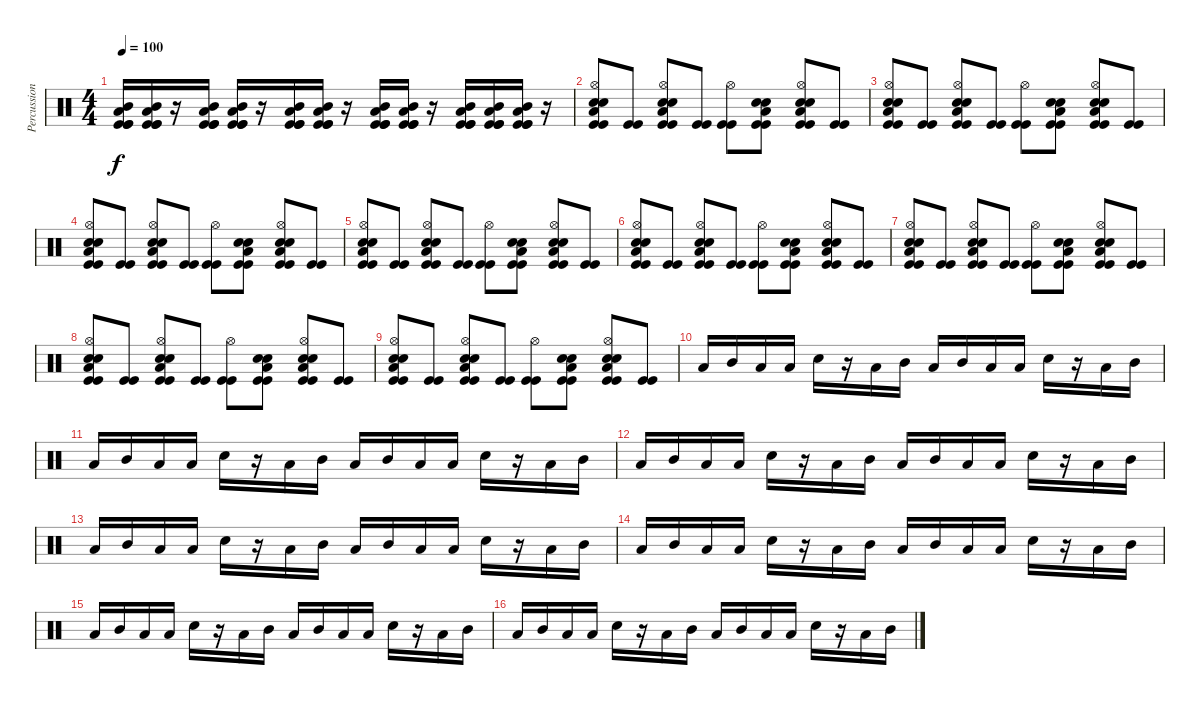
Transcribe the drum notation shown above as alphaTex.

\track ("Percussion" "Percussion") {instrument percussion}
\staff {score}
\articulation defaults
\ts (4 4)
\tempo 100
\clef neutral
\ks c
("Kick (hit)" "Kick (hit)" "Kick (hit)" "Low Tom (hit)" "Mid Tom (hit)").16{dy f} ("Kick (hit)" "Kick (hit)" "Kick (hit)" "Low Tom (hit)" "Mid Tom (hit)").16 r.16 ("Kick (hit)" "Kick (hit)" "Kick (hit)" "Low Tom (hit)" "Mid Tom (hit)").16 ("Kick (hit)" "Kick (hit)" "Kick (hit)" "Low Tom (hit)" "Mid Tom (hit)").16 r.16 ("Kick (hit)" "Kick (hit)" "Kick (hit)" "Low Tom (hit)" "Mid Tom (hit)").16 ("Kick (hit)" "Kick (hit)" "Kick (hit)" "Low Tom (hit)" "Mid Tom (hit)").16 r.16 ("Kick (hit)" "Kick (hit)" "Kick (hit)" "Low Tom (hit)" "Mid Tom (hit)").16 ("Kick (hit)" "Kick (hit)" "Kick (hit)" "Low Tom (hit)" "Mid Tom (hit)").16 r.16 ("Kick (hit)" "Kick (hit)" "Kick (hit)" "Low Tom (hit)" "Mid Tom (hit)").16 ("Kick (hit)" "Kick (hit)" "Kick (hit)" "Low Tom (hit)" "Mid Tom (hit)").16 ("Kick (hit)" "Kick (hit)" "Kick (hit)" "Low Tom (hit)" "Mid Tom (hit)").16 r.16 |
("Hi-Hat (open)" "Kick (hit)" "Kick (hit)" "Electric Snare (hit)" "Electric Snare (hit)" "Low Tom (hit)").8 ("Kick (hit)" "Kick (hit)").8 ("Hi-Hat (open)" "Kick (hit)" "Kick (hit)" "Electric Snare (hit)" "Electric Snare (hit)" "Low Tom (hit)").8 ("Kick (hit)" "Kick (hit)").8 ("Hi-Hat (open)" "Kick (hit)" "Kick (hit)").8 ("Kick (hit)" "Kick (hit)" "Electric Snare (hit)" "Electric Snare (hit)" "Low Tom (hit)").8 ("Hi-Hat (open)" "Kick (hit)" "Kick (hit)" "Electric Snare (hit)" "Electric Snare (hit)" "Low Tom (hit)").8 ("Kick (hit)" "Kick (hit)").8 |
("Hi-Hat (open)" "Kick (hit)" "Kick (hit)" "Electric Snare (hit)" "Electric Snare (hit)" "Low Tom (hit)").8 ("Kick (hit)" "Kick (hit)").8 ("Hi-Hat (open)" "Kick (hit)" "Kick (hit)" "Electric Snare (hit)" "Electric Snare (hit)" "Low Tom (hit)").8 ("Kick (hit)" "Kick (hit)").8 ("Hi-Hat (open)" "Kick (hit)" "Kick (hit)").8 ("Kick (hit)" "Kick (hit)" "Electric Snare (hit)" "Electric Snare (hit)" "Low Tom (hit)").8 ("Hi-Hat (open)" "Kick (hit)" "Kick (hit)" "Electric Snare (hit)" "Electric Snare (hit)" "Low Tom (hit)").8 ("Kick (hit)" "Kick (hit)").8 |
("Hi-Hat (open)" "Kick (hit)" "Kick (hit)" "Electric Snare (hit)" "Electric Snare (hit)" "Low Tom (hit)").8 ("Kick (hit)" "Kick (hit)").8 ("Hi-Hat (open)" "Kick (hit)" "Kick (hit)" "Electric Snare (hit)" "Electric Snare (hit)" "Low Tom (hit)").8 ("Kick (hit)" "Kick (hit)").8 ("Hi-Hat (open)" "Kick (hit)" "Kick (hit)").8 ("Kick (hit)" "Kick (hit)" "Electric Snare (hit)" "Electric Snare (hit)" "Low Tom (hit)").8 ("Hi-Hat (open)" "Kick (hit)" "Kick (hit)" "Electric Snare (hit)" "Electric Snare (hit)" "Low Tom (hit)").8 ("Kick (hit)" "Kick (hit)").8 |
("Hi-Hat (open)" "Kick (hit)" "Kick (hit)" "Electric Snare (hit)" "Electric Snare (hit)" "Low Tom (hit)").8 ("Kick (hit)" "Kick (hit)").8 ("Hi-Hat (open)" "Kick (hit)" "Kick (hit)" "Electric Snare (hit)" "Electric Snare (hit)" "Low Tom (hit)").8 ("Kick (hit)" "Kick (hit)").8 ("Hi-Hat (open)" "Kick (hit)" "Kick (hit)").8 ("Kick (hit)" "Kick (hit)" "Electric Snare (hit)" "Electric Snare (hit)" "Low Tom (hit)").8 ("Hi-Hat (open)" "Kick (hit)" "Kick (hit)" "Electric Snare (hit)" "Electric Snare (hit)" "Low Tom (hit)").8 ("Kick (hit)" "Kick (hit)").8 |
("Hi-Hat (open)" "Kick (hit)" "Kick (hit)" "Electric Snare (hit)" "Electric Snare (hit)" "Low Tom (hit)").8 ("Kick (hit)" "Kick (hit)").8 ("Hi-Hat (open)" "Kick (hit)" "Kick (hit)" "Electric Snare (hit)" "Electric Snare (hit)" "Low Tom (hit)").8 ("Kick (hit)" "Kick (hit)").8 ("Hi-Hat (open)" "Kick (hit)" "Kick (hit)").8 ("Kick (hit)" "Kick (hit)" "Electric Snare (hit)" "Electric Snare (hit)" "Low Tom (hit)").8 ("Hi-Hat (open)" "Kick (hit)" "Kick (hit)" "Electric Snare (hit)" "Electric Snare (hit)" "Low Tom (hit)").8 ("Kick (hit)" "Kick (hit)").8 |
("Hi-Hat (open)" "Kick (hit)" "Kick (hit)" "Electric Snare (hit)" "Electric Snare (hit)" "Low Tom (hit)").8 ("Kick (hit)" "Kick (hit)").8 ("Hi-Hat (open)" "Kick (hit)" "Kick (hit)" "Electric Snare (hit)" "Electric Snare (hit)" "Low Tom (hit)").8 ("Kick (hit)" "Kick (hit)").8 ("Hi-Hat (open)" "Kick (hit)" "Kick (hit)").8 ("Kick (hit)" "Kick (hit)" "Electric Snare (hit)" "Electric Snare (hit)" "Low Tom (hit)").8 ("Hi-Hat (open)" "Kick (hit)" "Kick (hit)" "Electric Snare (hit)" "Electric Snare (hit)" "Low Tom (hit)").8 ("Kick (hit)" "Kick (hit)").8 |
("Hi-Hat (open)" "Kick (hit)" "Kick (hit)" "Electric Snare (hit)" "Electric Snare (hit)" "Low Tom (hit)").8 ("Kick (hit)" "Kick (hit)").8 ("Hi-Hat (open)" "Kick (hit)" "Kick (hit)" "Electric Snare (hit)" "Electric Snare (hit)" "Low Tom (hit)").8 ("Kick (hit)" "Kick (hit)").8 ("Hi-Hat (open)" "Kick (hit)" "Kick (hit)").8 ("Kick (hit)" "Kick (hit)" "Electric Snare (hit)" "Electric Snare (hit)" "Low Tom (hit)").8 ("Hi-Hat (open)" "Kick (hit)" "Kick (hit)" "Electric Snare (hit)" "Electric Snare (hit)" "Low Tom (hit)").8 ("Kick (hit)" "Kick (hit)").8 |
("Hi-Hat (open)" "Kick (hit)" "Kick (hit)" "Electric Snare (hit)" "Electric Snare (hit)" "Low Tom (hit)").8 ("Kick (hit)" "Kick (hit)").8 ("Hi-Hat (open)" "Kick (hit)" "Kick (hit)" "Electric Snare (hit)" "Electric Snare (hit)" "Low Tom (hit)").8 ("Kick (hit)" "Kick (hit)").8 ("Hi-Hat (open)" "Kick (hit)" "Kick (hit)").8 ("Kick (hit)" "Kick (hit)" "Electric Snare (hit)" "Electric Snare (hit)" "Low Tom (hit)").8 ("Hi-Hat (open)" "Kick (hit)" "Kick (hit)" "Electric Snare (hit)" "Electric Snare (hit)" "Low Tom (hit)").8 ("Kick (hit)" "Kick (hit)").8 |
"Low Tom (hit)".16 "Mid Tom (hit)".16 "Low Tom (hit)".16 "Low Tom (hit)".16 "Electric Snare (hit)".16 r.16 "Low Tom (hit)".16 "Mid Tom (hit)".16 "Low Tom (hit)".16 "Mid Tom (hit)".16 "Low Tom (hit)".16 "Low Tom (hit)".16 "Electric Snare (hit)".16 r.16 "Low Tom (hit)".16 "Mid Tom (hit)".16 |
"Low Tom (hit)".16 "Mid Tom (hit)".16 "Low Tom (hit)".16 "Low Tom (hit)".16 "Electric Snare (hit)".16 r.16 "Low Tom (hit)".16 "Mid Tom (hit)".16 "Low Tom (hit)".16 "Mid Tom (hit)".16 "Low Tom (hit)".16 "Low Tom (hit)".16 "Electric Snare (hit)".16 r.16 "Low Tom (hit)".16 "Mid Tom (hit)".16 |
"Low Tom (hit)".16 "Mid Tom (hit)".16 "Low Tom (hit)".16 "Low Tom (hit)".16 "Electric Snare (hit)".16 r.16 "Low Tom (hit)".16 "Mid Tom (hit)".16 "Low Tom (hit)".16 "Mid Tom (hit)".16 "Low Tom (hit)".16 "Low Tom (hit)".16 "Electric Snare (hit)".16 r.16 "Low Tom (hit)".16 "Mid Tom (hit)".16 |
"Low Tom (hit)".16 "Mid Tom (hit)".16 "Low Tom (hit)".16 "Low Tom (hit)".16 "Electric Snare (hit)".16 r.16 "Low Tom (hit)".16 "Mid Tom (hit)".16 "Low Tom (hit)".16 "Mid Tom (hit)".16 "Low Tom (hit)".16 "Low Tom (hit)".16 "Electric Snare (hit)".16 r.16 "Low Tom (hit)".16 "Mid Tom (hit)".16 |
"Low Tom (hit)".16 "Mid Tom (hit)".16 "Low Tom (hit)".16 "Low Tom (hit)".16 "Electric Snare (hit)".16 r.16 "Low Tom (hit)".16 "Mid Tom (hit)".16 "Low Tom (hit)".16 "Mid Tom (hit)".16 "Low Tom (hit)".16 "Low Tom (hit)".16 "Electric Snare (hit)".16 r.16 "Low Tom (hit)".16 "Mid Tom (hit)".16 |
"Low Tom (hit)".16 "Mid Tom (hit)".16 "Low Tom (hit)".16 "Low Tom (hit)".16 "Electric Snare (hit)".16 r.16 "Low Tom (hit)".16 "Mid Tom (hit)".16 "Low Tom (hit)".16 "Mid Tom (hit)".16 "Low Tom (hit)".16 "Low Tom (hit)".16 "Electric Snare (hit)".16 r.16 "Low Tom (hit)".16 "Mid Tom (hit)".16 |
"Low Tom (hit)".16 "Mid Tom (hit)".16 "Low Tom (hit)".16 "Low Tom (hit)".16 "Electric Snare (hit)".16 r.16 "Low Tom (hit)".16 "Mid Tom (hit)".16 "Low Tom (hit)".16 "Mid Tom (hit)".16 "Low Tom (hit)".16 "Low Tom (hit)".16 "Electric Snare (hit)".16 r.16 "Low Tom (hit)".16 "Mid Tom (hit)".16
